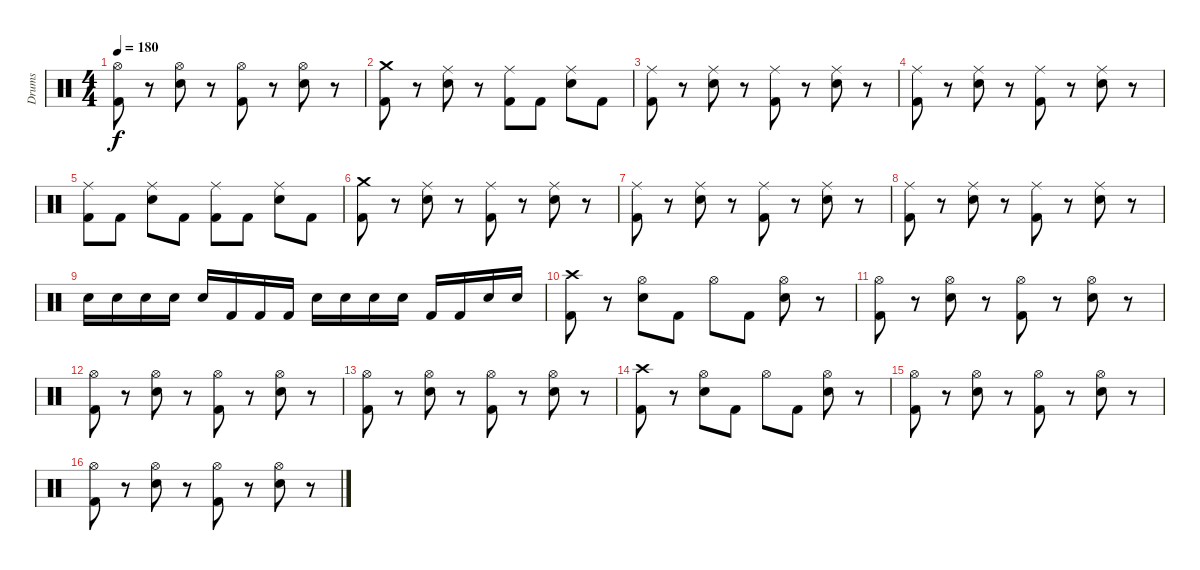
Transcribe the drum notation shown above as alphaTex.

\track ("Drums" "Drums") {instrument percussion}
\staff {score}
\articulation defaults
\ts (4 4)
\tempo 180
\clef neutral
\ks c
("Hi-Hat (open)" "Kick (hit) 2").8{dy f} r.8 ("Hi-Hat (open)" "Snare (hit) 2").8 r.8 ("Hi-Hat (open)" "Kick (hit) 2").8 r.8 ("Hi-Hat (open)" "Snare (hit) 2").8 r.8 |
("Crash medium (hit)" "Kick (hit) 2").8 r.8 ("Ride (middle)" "Snare (hit) 2").8 r.8 ("Ride (middle)" "Kick (hit) 2").8 "Kick (hit) 2".8 ("Ride (middle)" "Snare (hit) 2").8 "Kick (hit) 2".8 |
("Ride (middle)" "Kick (hit) 2").8 r.8 ("Ride (middle)" "Snare (hit) 2").8 r.8 ("Ride (middle)" "Kick (hit) 2").8 r.8 ("Ride (middle)" "Snare (hit) 2").8 r.8 |
("Ride (middle)" "Kick (hit) 2").8 r.8 ("Ride (middle)" "Snare (hit) 2").8 r.8 ("Ride (middle)" "Kick (hit) 2").8 r.8 ("Ride (middle)" "Snare (hit) 2").8 r.8 |
("Ride (middle)" "Kick (hit) 2").8 "Kick (hit) 2".8 ("Ride (middle)" "Snare (hit) 2").8 "Kick (hit) 2".8 ("Ride (middle)" "Kick (hit) 2").8 "Kick (hit) 2".8 ("Ride (middle)" "Snare (hit) 2").8 "Kick (hit) 2".8 |
("Crash medium (hit)" "Kick (hit) 2").8 r.8 ("Ride (middle)" "Snare (hit) 2").8 r.8 ("Ride (middle)" "Kick (hit) 2").8 r.8 ("Ride (middle)" "Snare (hit) 2").8 r.8 |
("Ride (middle)" "Kick (hit) 2").8 r.8 ("Ride (middle)" "Snare (hit) 2").8 r.8 ("Ride (middle)" "Kick (hit) 2").8 r.8 ("Ride (middle)" "Snare (hit) 2").8 r.8 |
("Ride (middle)" "Kick (hit) 2").8 r.8 ("Ride (middle)" "Snare (hit) 2").8 r.8 ("Ride (middle)" "Kick (hit) 2").8 r.8 ("Ride (middle)" "Snare (hit) 2").8 r.8 |
"Snare (hit) 2".16 "Snare (hit) 2".16 "Snare (hit) 2".16 "Snare (hit) 2".16 "Snare (hit) 2".16 "Kick (hit) 2".16 "Kick (hit) 2".16 "Kick (hit) 2".16 "Snare (hit) 2".16 "Snare (hit) 2".16 "Snare (hit) 2".16 "Snare (hit) 2".16 "Kick (hit) 2".16 "Kick (hit) 2".16 "Snare (hit) 2".16 "Snare (hit) 2".16 |
("Crash high (hit)" "Kick (hit) 2").8 r.8 ("Hi-Hat (open)" "Snare (hit) 2").8 "Kick (hit) 2".8 "Hi-Hat (open)".8 "Kick (hit) 2".8 ("Hi-Hat (open)" "Snare (hit) 2").8 r.8 |
("Hi-Hat (open)" "Kick (hit) 2").8 r.8 ("Hi-Hat (open)" "Snare (hit) 2").8 r.8 ("Hi-Hat (open)" "Kick (hit) 2").8 r.8 ("Hi-Hat (open)" "Snare (hit) 2").8 r.8 |
("Hi-Hat (open)" "Kick (hit) 2").8 r.8 ("Hi-Hat (open)" "Snare (hit) 2").8 r.8 ("Hi-Hat (open)" "Kick (hit) 2").8 r.8 ("Hi-Hat (open)" "Snare (hit) 2").8 r.8 |
("Hi-Hat (open)" "Kick (hit) 2").8 r.8 ("Hi-Hat (open)" "Snare (hit) 2").8 r.8 ("Hi-Hat (open)" "Kick (hit) 2").8 r.8 ("Hi-Hat (open)" "Snare (hit) 2").8 r.8 |
("Crash high (hit)" "Kick (hit) 2").8 r.8 ("Hi-Hat (open)" "Snare (hit) 2").8 "Kick (hit) 2".8 "Hi-Hat (open)".8 "Kick (hit) 2".8 ("Hi-Hat (open)" "Snare (hit) 2").8 r.8 |
("Hi-Hat (open)" "Kick (hit) 2").8 r.8 ("Hi-Hat (open)" "Snare (hit) 2").8 r.8 ("Hi-Hat (open)" "Kick (hit) 2").8 r.8 ("Hi-Hat (open)" "Snare (hit) 2").8 r.8 |
("Hi-Hat (open)" "Kick (hit) 2").8 r.8 ("Hi-Hat (open)" "Snare (hit) 2").8 r.8 ("Hi-Hat (open)" "Kick (hit) 2").8 r.8 ("Hi-Hat (open)" "Snare (hit) 2").8 r.8
